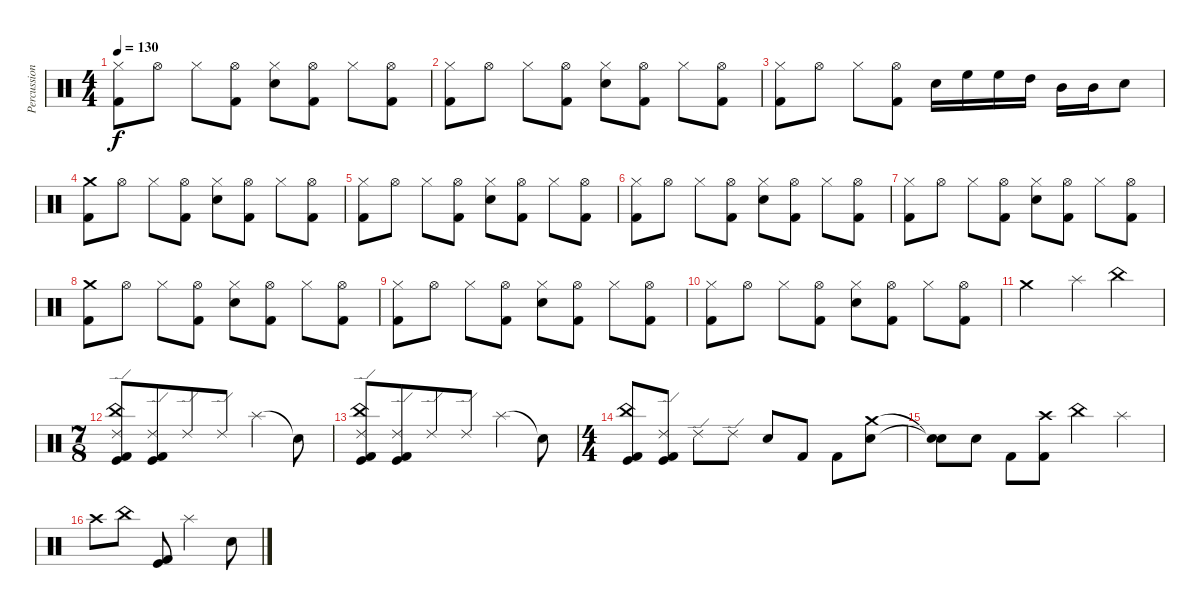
\track ("Percussion" "Percussion") {instrument percussion}
\staff {score}
\articulation defaults
\ts (4 4)
\tempo 130
\clef neutral
\ks c
("Hi-Hat (closed)" "Kick (hit) 2").8{dy f} "Hi-Hat (open)".8 "Hi-Hat (closed)".8 ("Hi-Hat (open)" "Kick (hit) 2").8 ("Hi-Hat (closed)" "Snare (hit) 2").8 ("Hi-Hat (open)" "Kick (hit) 2").8 "Hi-Hat (closed)".8 ("Hi-Hat (open)" "Kick (hit) 2").8 |
("Hi-Hat (closed)" "Kick (hit) 2").8 "Hi-Hat (open)".8 "Hi-Hat (closed)".8 ("Hi-Hat (open)" "Kick (hit) 2").8 ("Hi-Hat (closed)" "Snare (hit) 2").8 ("Hi-Hat (open)" "Kick (hit) 2").8 "Hi-Hat (closed)".8 ("Hi-Hat (open)" "Kick (hit) 2").8 |
("Hi-Hat (closed)" "Kick (hit) 2").8 "Hi-Hat (open)".8 "Hi-Hat (closed)".8 ("Hi-Hat (open)" "Kick (hit) 2").8 "Snare (hit) 2".16 "High Floor Tom (hit)".16 "High Floor Tom (hit)".16 "High Tom (hit)".16 "Mid Tom (hit)".16 "Mid Tom (hit)".16 "Snare (hit) 2".8 |
("Crash medium (hit)" "Kick (hit) 2").8 "Hi-Hat (open)".8 "Hi-Hat (closed)".8 ("Hi-Hat (open)" "Kick (hit) 2").8 ("Hi-Hat (closed)" "Snare (hit) 2").8 ("Hi-Hat (open)" "Kick (hit) 2").8 "Hi-Hat (closed)".8 ("Hi-Hat (open)" "Kick (hit) 2").8 |
("Hi-Hat (closed)" "Kick (hit) 2").8 "Hi-Hat (open)".8 "Hi-Hat (closed)".8 ("Hi-Hat (open)" "Kick (hit) 2").8 ("Hi-Hat (closed)" "Snare (hit) 2").8 ("Hi-Hat (open)" "Kick (hit) 2").8 "Hi-Hat (closed)".8 ("Hi-Hat (open)" "Kick (hit) 2").8 |
("Hi-Hat (closed)" "Kick (hit) 2").8 "Hi-Hat (open)".8 "Hi-Hat (closed)".8 ("Hi-Hat (open)" "Kick (hit) 2").8 ("Hi-Hat (closed)" "Snare (hit) 2").8 ("Hi-Hat (open)" "Kick (hit) 2").8 "Hi-Hat (closed)".8 ("Hi-Hat (open)" "Kick (hit) 2").8 |
("Hi-Hat (closed)" "Kick (hit) 2").8 "Hi-Hat (open)".8 "Hi-Hat (closed)".8 ("Hi-Hat (open)" "Kick (hit) 2").8 ("Hi-Hat (closed)" "Snare (hit) 2").8 ("Hi-Hat (open)" "Kick (hit) 2").8 "Hi-Hat (closed)".8 ("Hi-Hat (open)" "Kick (hit) 2").8 |
("Crash medium (hit)" "Kick (hit) 2").8 "Hi-Hat (open)".8 "Hi-Hat (closed)".8 ("Hi-Hat (open)" "Kick (hit) 2").8 ("Hi-Hat (closed)" "Snare (hit) 2").8 ("Hi-Hat (open)" "Kick (hit) 2").8 "Hi-Hat (closed)".8 ("Hi-Hat (open)" "Kick (hit) 2").8 |
("Hi-Hat (closed)" "Kick (hit) 2").8 "Hi-Hat (open)".8 "Hi-Hat (closed)".8 ("Hi-Hat (open)" "Kick (hit) 2").8 ("Hi-Hat (closed)" "Snare (hit) 2").8 ("Hi-Hat (open)" "Kick (hit) 2").8 "Hi-Hat (closed)".8 ("Hi-Hat (open)" "Kick (hit) 2").8 |
("Hi-Hat (closed)" "Kick (hit) 2").8 "Hi-Hat (open)".8 "Hi-Hat (closed)".8 ("Hi-Hat (open)" "Kick (hit) 2").8 ("Hi-Hat (closed)" "Snare (hit) 2").8 ("Hi-Hat (open)" "Kick (hit) 2").8 "Hi-Hat (closed)".8 ("Hi-Hat (open)" "Kick (hit) 2").8 |
"Crash medium (hit)".2 "Splash (hit)".4 "China (hit)".4 |
\ts (7 8)
("China (hit)" "Ride (edge) 2" "Kick (hit)" "Kick (hit) 2").8 ("Ride (edge) 2" "Kick (hit)" "Kick (hit) 2").8 "Ride (edge) 2".8 "Ride (edge) 2".8 "Splash (hit)".4 "Snare (hit)"{t}.8 |
("China (hit)" "Ride (edge) 2" "Kick (hit)" "Kick (hit) 2").8 ("Ride (edge) 2" "Kick (hit)" "Kick (hit) 2").8 "Ride (edge) 2".8 "Ride (edge) 2".8 "Splash (hit)".4 "Snare (hit)"{t}.8 |
\ts (4 4)
("China (hit)" "Kick (hit)" "Kick (hit) 2").8 ("Ride (edge) 2" "Kick (hit) 2" "Kick (hit)").8 "Ride (edge) 2".8 "Ride (edge) 2".8 "Snare (hit) 2".8 "Kick (hit) 2".8 "Kick (hit) 2".8 ("Crash medium (hit)" "Snare (hit) 2").8 |
("Snare (hit)"{t} "Snare (hit)"{t}).8 "Snare (hit) 2".8 "Kick (hit) 2".8 ("Crash high (hit)" "Kick (hit) 2").8 "China (hit)".4 "Splash (hit)".4 |
"Crash high (hit)".8 "China (hit)".8 ("Kick (hit)" "Kick (hit) 2").8 "Splash (hit)".2 "Snare (hit) 2".8
